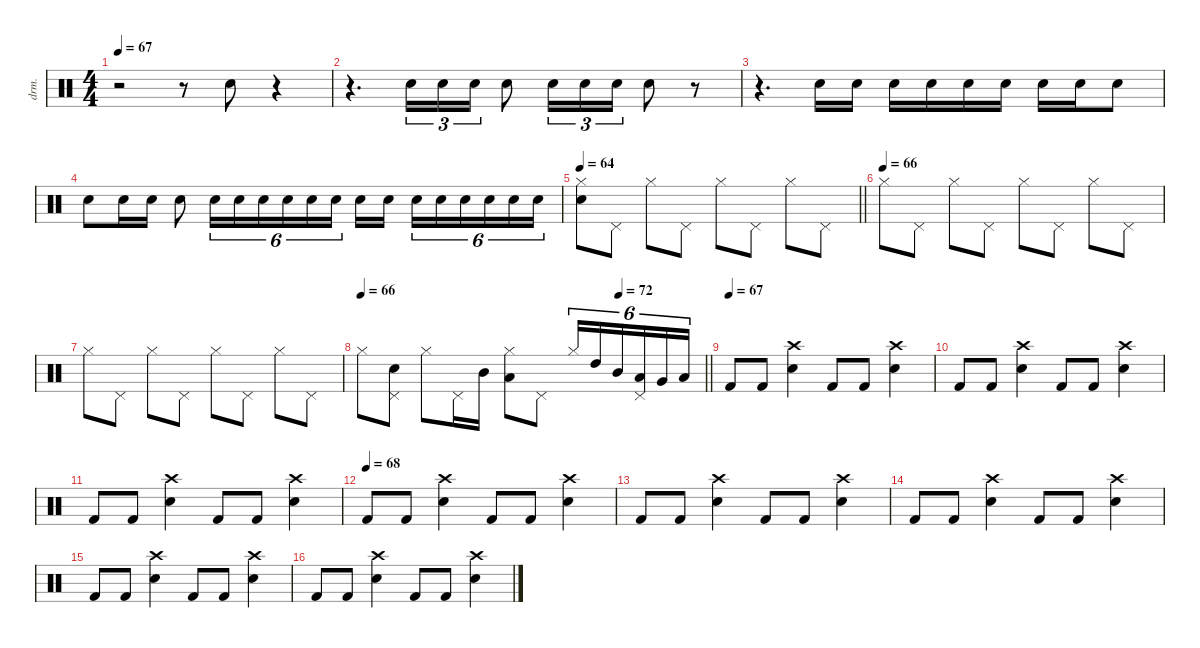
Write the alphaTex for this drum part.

\defaultSystemsLayout 4
\hideDynamics
\bracketExtendMode groupsimilarinstruments
\otherSystemsTrackNameOrientation horizontal
\track ("Drums" "drm.") {defaultSystemsLayout 4 instrument percussion}
\staff {score}
\articulation defaults
\ts (4 4)
\tempo 67
\clef neutral
\ks c
r.2{dy f beam Down} r.8{beam Down} "Snare (hit) 2".8{dy mf beam Down} r.4{beam Down} |
r.4{d beam Down} "Snare (hit) 2".16{tu (3 2) dy mp beam Down} "Snare (hit) 2".16{tu (3 2) beam Down} "Snare (hit) 2".16{tu (3 2) beam Down} "Snare (hit) 2".8{beam Down} "Snare (hit) 2".16{tu (3 2) dy mf beam Down} "Snare (hit) 2".16{tu (3 2) beam Down} "Snare (hit) 2".16{tu (3 2) beam Down} "Snare (hit) 2".8{beam Down} r.8{beam Down} |
r.4{d beam Down} "Snare (hit) 2".16{dy p beam Down} "Snare (hit) 2".16{beam Down} "Snare (hit) 2".16{dy mp beam Down} "Snare (hit) 2".16{beam Down} "Snare (hit) 2".16{beam Down} "Snare (hit) 2".16{dy mf beam Down} "Snare (hit) 2".16{beam Down} "Snare (hit) 2".16{beam Down} "Snare (hit) 2".8{beam Down} |
"Snare (hit) 2".8{dy f beam Down} "Snare (hit) 2".16{dy p beam Down} "Snare (hit) 2".16{dy pp beam Down} "Snare (hit) 2".8{dy p beam Down} "Snare (hit) 2".16{tu (6 4) dy ppp beam Down} "Snare (hit) 2".16{tu (6 4) dy pp beam Down} "Snare (hit) 2".16{tu (6 4) beam Down} "Snare (hit) 2".16{tu (6 4) beam Down} "Snare (hit) 2".16{tu (6 4) dy p beam Down} "Snare (hit) 2".16{tu (6 4) beam Down} "Snare (hit) 2".16{dy mp beam Down} "Snare (hit) 2".16{dy pp beam Down} "Snare (hit) 2".16{tu (6 4) dy p beam Down} "Snare (hit) 2".16{tu (6 4) beam Down} "Snare (hit) 2".16{tu (6 4) beam Down} "Snare (hit) 2".16{tu (6 4) dy mp beam Down} "Snare (hit) 2".16{tu (6 4) beam Down} "Snare (hit) 2".16{tu (6 4) dy mf beam Down} |
\tempo 64
\barLineRight lightlight
("Snare (hit) 2" "Hi-Hat (closed)").8{dy f beam Down} "Pedal Hi-Hat (hit)".8{dy mf beam Down} "Hi-Hat (closed)".8{dy mp beam Down} "Pedal Hi-Hat (hit)".8{dy mf beam Down} "Hi-Hat (closed)".8{dy mp beam Down} "Pedal Hi-Hat (hit)".8{dy mf beam Down} "Hi-Hat (closed)".8{dy mp beam Down} "Pedal Hi-Hat (hit)".8{beam Down} |
\tempo (66)
"Hi-Hat (closed)".8{dy f beam Down} "Pedal Hi-Hat (hit)".8{dy mf beam Down} "Hi-Hat (closed)".8{beam Down} "Pedal Hi-Hat (hit)".8{beam Down} "Hi-Hat (closed)".8{beam Down} "Pedal Hi-Hat (hit)".8{beam Down} "Hi-Hat (closed)".8{dy mp beam Down} "Pedal Hi-Hat (hit)".8{beam Down} |
"Hi-Hat (closed)".8{dy f beam Down} "Pedal Hi-Hat (hit)".8{dy mf beam Down} "Hi-Hat (closed)".8{dy mp beam Down} "Pedal Hi-Hat (hit)".8{beam Down} "Hi-Hat (closed)".8{beam Down} "Pedal Hi-Hat (hit)".8{dy mf beam Down} "Hi-Hat (closed)".8{beam Down} "Pedal Hi-Hat (hit)".8{beam Down} |
\tempo 66
\tempo (72 0.75)
\barLineRight lightlight "Hi-Hat (closed)".8{dy f beam Down}
("Snare (hit) 2" "Pedal Hi-Hat (hit)").8{dy fff beam Down} "Hi-Hat (closed)".8{dy mp beam Down} "Pedal Hi-Hat (hit)".16{dy mf beam Down} "Mid Tom (hit)".16{dy fff beam Down} ("Low Tom (hit)" "Hi-Hat (closed)").8{beam Down} "Pedal Hi-Hat (hit)".8{dy mf beam Down} "Hi-Hat (closed)".16{tu (6 4) dy mp beam Up} "High Tom (hit)".16{tu (6 4) dy mf beam Up} "Mid Tom (hit)".16{tu (6 4) dy f beam Up} ("Low Tom (hit)" "Pedal Hi-Hat (hit)").16{tu (6 4) beam Up} "Very Low Tom (hit)".16{tu (6 4) dy ff beam Up} "Low Floor Tom (hit)".16{tu (6 4) beam Up} |
\tempo (67)
"Kick (hit) 2".8{dy f beam Up} "Kick (hit) 2".8{dy fff beam Up} ("Snare (hit) 2" "Crash high (hit)").4{beam Down} "Kick (hit) 2".8{beam Up} "Kick (hit) 2".8{beam Up} ("Snare (hit) 2" "Crash high (hit)").4{beam Down} |
"Kick (hit) 2".8{dy f beam Up} "Kick (hit) 2".8{dy fff beam Up} ("Snare (hit) 2" "Crash high (hit)").4{beam Down} "Kick (hit) 2".8{beam Up} "Kick (hit) 2".8{beam Up} ("Snare (hit) 2" "Crash high (hit)").4{beam Down} |
"Kick (hit) 2".8{dy f beam Up} "Kick (hit) 2".8{dy fff beam Up} ("Snare (hit) 2" "Crash high (hit)").4{beam Down} "Kick (hit) 2".8{beam Up} "Kick (hit) 2".8{beam Up} ("Snare (hit) 2" "Crash high (hit)").4{beam Down} |
\tempo (68)
"Kick (hit) 2".8{dy f beam Up} "Kick (hit) 2".8{dy fff beam Up} ("Snare (hit) 2" "Crash high (hit)").4{beam Down} "Kick (hit) 2".8{beam Up} "Kick (hit) 2".8{beam Up} ("Snare (hit) 2" "Crash high (hit)").4{beam Down} |
"Kick (hit) 2".8{dy f beam Up} "Kick (hit) 2".8{dy fff beam Up} ("Snare (hit) 2" "Crash high (hit)").4{beam Down} "Kick (hit) 2".8{beam Up} "Kick (hit) 2".8{beam Up} ("Snare (hit) 2" "Crash high (hit)").4{beam Down} |
"Kick (hit) 2".8{dy f beam Up} "Kick (hit) 2".8{dy fff beam Up} ("Snare (hit) 2" "Crash high (hit)").4{beam Down} "Kick (hit) 2".8{beam Up} "Kick (hit) 2".8{beam Up} ("Snare (hit) 2" "Crash high (hit)").4{beam Down} |
"Kick (hit) 2".8{dy f beam Up} "Kick (hit) 2".8{dy fff beam Up} ("Snare (hit) 2" "Crash high (hit)").4{beam Down} "Kick (hit) 2".8{beam Up} "Kick (hit) 2".8{beam Up} ("Snare (hit) 2" "Crash high (hit)").4{beam Down} |
"Kick (hit) 2".8{dy f beam Up} "Kick (hit) 2".8{dy fff beam Up} ("Snare (hit) 2" "Crash high (hit)").4{beam Down} "Kick (hit) 2".8{beam Up} "Kick (hit) 2".8{beam Up} ("Snare (hit) 2" "Crash high (hit)").4{beam Down}
